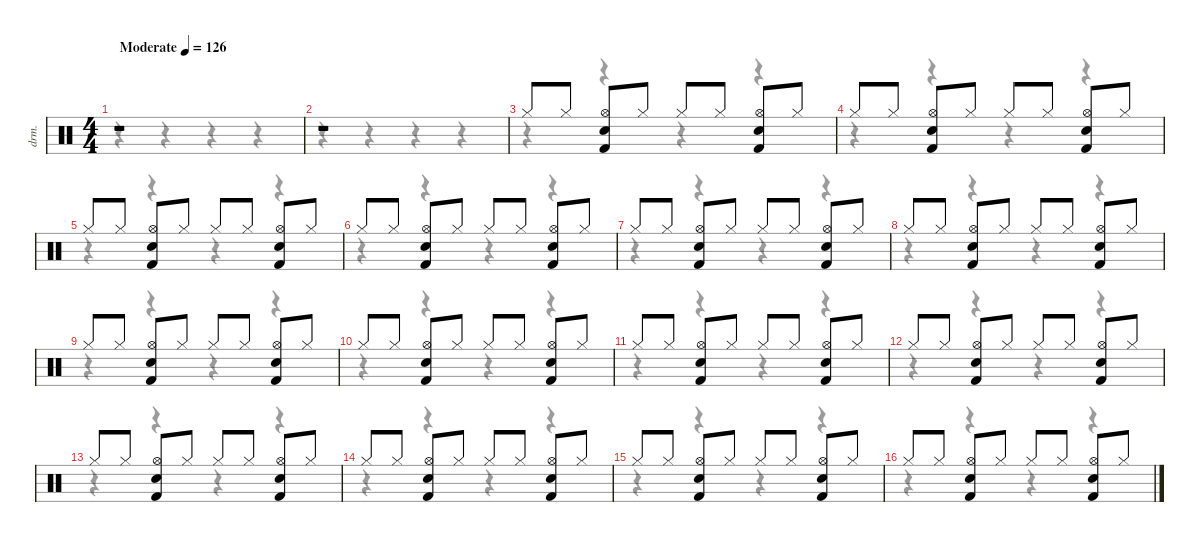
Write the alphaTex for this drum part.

\defaultSystemsLayout 4
\hideDynamics
\bracketExtendMode nobrackets
\otherSystemsTrackNameOrientation horizontal
\track ("drums" "drm.") {instrument percussion}
\staff {score}
\articulation defaults
\voice
\ts (4 4)
\beaming (8 2 2 2 2)
\tempo (126 "Moderate")
\clef neutral
\ks c
r.1{dy f} |
r.1 |
"Hi-Hat (closed)".8 "Hi-Hat (closed)".8 ("Snare (hit) 2" "Hi-Hat (open)" "Kick (hit) 2").8 "Hi-Hat (closed)".8 "Hi-Hat (closed)".8 "Hi-Hat (closed)".8 ("Snare (hit) 2" "Hi-Hat (open)" "Kick (hit) 2").8 "Hi-Hat (closed)".8 |
"Hi-Hat (closed)".8 "Hi-Hat (closed)".8 ("Snare (hit) 2" "Hi-Hat (open)" "Kick (hit) 2").8 "Hi-Hat (closed)".8 "Hi-Hat (closed)".8 "Hi-Hat (closed)".8 ("Snare (hit) 2" "Hi-Hat (open)" "Kick (hit) 2").8 "Hi-Hat (closed)".8 |
"Hi-Hat (closed)".8 "Hi-Hat (closed)".8 ("Snare (hit) 2" "Hi-Hat (open)" "Kick (hit) 2").8 "Hi-Hat (closed)".8 "Hi-Hat (closed)".8 "Hi-Hat (closed)".8 ("Snare (hit) 2" "Hi-Hat (open)" "Kick (hit) 2").8 "Hi-Hat (closed)".8 |
"Hi-Hat (closed)".8 "Hi-Hat (closed)".8 ("Snare (hit) 2" "Hi-Hat (open)" "Kick (hit) 2").8 "Hi-Hat (closed)".8 "Hi-Hat (closed)".8 "Hi-Hat (closed)".8 ("Snare (hit) 2" "Hi-Hat (open)" "Kick (hit) 2").8 "Hi-Hat (closed)".8 |
"Hi-Hat (closed)".8 "Hi-Hat (closed)".8 ("Snare (hit) 2" "Hi-Hat (open)" "Kick (hit) 2").8 "Hi-Hat (closed)".8 "Hi-Hat (closed)".8 "Hi-Hat (closed)".8 ("Snare (hit) 2" "Hi-Hat (open)" "Kick (hit) 2").8 "Hi-Hat (closed)".8 |
"Hi-Hat (closed)".8 "Hi-Hat (closed)".8 ("Snare (hit) 2" "Hi-Hat (open)" "Kick (hit) 2").8 "Hi-Hat (closed)".8 "Hi-Hat (closed)".8 "Hi-Hat (closed)".8 ("Snare (hit) 2" "Hi-Hat (open)" "Kick (hit) 2").8 "Hi-Hat (closed)".8 |
"Hi-Hat (closed)".8 "Hi-Hat (closed)".8 ("Snare (hit) 2" "Hi-Hat (open)" "Kick (hit) 2").8 "Hi-Hat (closed)".8 "Hi-Hat (closed)".8 "Hi-Hat (closed)".8 ("Snare (hit) 2" "Hi-Hat (open)" "Kick (hit) 2").8 "Hi-Hat (closed)".8 |
"Hi-Hat (closed)".8 "Hi-Hat (closed)".8 ("Snare (hit) 2" "Hi-Hat (open)" "Kick (hit) 2").8 "Hi-Hat (closed)".8 "Hi-Hat (closed)".8 "Hi-Hat (closed)".8 ("Snare (hit) 2" "Hi-Hat (open)" "Kick (hit) 2").8 "Hi-Hat (closed)".8 |
"Hi-Hat (closed)".8 "Hi-Hat (closed)".8 ("Snare (hit) 2" "Hi-Hat (open)" "Kick (hit) 2").8 "Hi-Hat (closed)".8 "Hi-Hat (closed)".8 "Hi-Hat (closed)".8 ("Snare (hit) 2" "Hi-Hat (open)" "Kick (hit) 2").8 "Hi-Hat (closed)".8 |
"Hi-Hat (closed)".8 "Hi-Hat (closed)".8 ("Snare (hit) 2" "Hi-Hat (open)" "Kick (hit) 2").8 "Hi-Hat (closed)".8 "Hi-Hat (closed)".8 "Hi-Hat (closed)".8 ("Snare (hit) 2" "Hi-Hat (open)" "Kick (hit) 2").8 "Hi-Hat (closed)".8 |
"Hi-Hat (closed)".8 "Hi-Hat (closed)".8 ("Snare (hit) 2" "Hi-Hat (open)" "Kick (hit) 2").8 "Hi-Hat (closed)".8 "Hi-Hat (closed)".8 "Hi-Hat (closed)".8 ("Snare (hit) 2" "Hi-Hat (open)" "Kick (hit) 2").8 "Hi-Hat (closed)".8 |
"Hi-Hat (closed)".8 "Hi-Hat (closed)".8 ("Snare (hit) 2" "Hi-Hat (open)" "Kick (hit) 2").8 "Hi-Hat (closed)".8 "Hi-Hat (closed)".8 "Hi-Hat (closed)".8 ("Snare (hit) 2" "Hi-Hat (open)" "Kick (hit) 2").8 "Hi-Hat (closed)".8 |
"Hi-Hat (closed)".8 "Hi-Hat (closed)".8 ("Snare (hit) 2" "Hi-Hat (open)" "Kick (hit) 2").8 "Hi-Hat (closed)".8 "Hi-Hat (closed)".8 "Hi-Hat (closed)".8 ("Snare (hit) 2" "Hi-Hat (open)" "Kick (hit) 2").8 "Hi-Hat (closed)".8 |
"Hi-Hat (closed)".8 "Hi-Hat (closed)".8 ("Snare (hit) 2" "Hi-Hat (open)" "Kick (hit) 2").8 "Hi-Hat (closed)".8 "Hi-Hat (closed)".8 "Hi-Hat (closed)".8 ("Snare (hit) 2" "Hi-Hat (open)" "Kick (hit) 2").8 "Hi-Hat (closed)".8
\voice
\clef neutral
\ottava regular
\simile none
\ks c
r.4{dy mf} r.4 r.4 r.4 |
r.4 r.4 r.4 r.4 |
r.4 r.4 r.4 r.4 |
r.4 r.4 r.4 r.4 |
r.4 r.4 r.4 r.4 |
r.4 r.4 r.4 r.4 |
r.4 r.4 r.4 r.4 |
r.4 r.4 r.4 r.4 |
r.4 r.4 r.4 r.4 |
r.4 r.4 r.4 r.4 |
r.4 r.4 r.4 r.4 |
r.4 r.4 r.4 r.4 |
r.4 r.4 r.4 r.4 |
r.4 r.4 r.4 r.4 |
r.4 r.4 r.4 r.4 |
r.4 r.4 r.4 r.4
